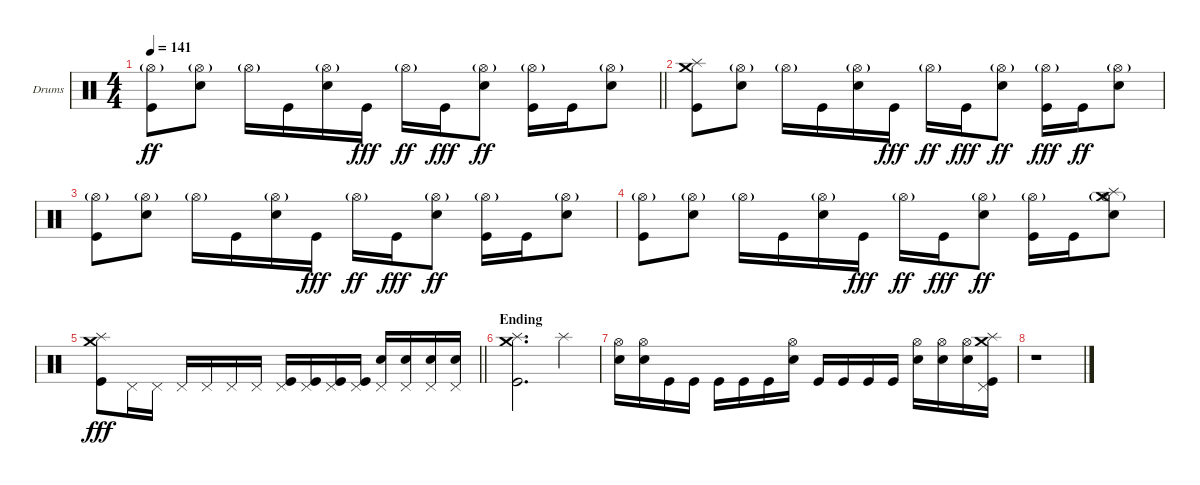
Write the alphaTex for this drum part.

\bracketExtendMode groupsimilarinstruments
\firstSystemTrackNameOrientation horizontal
\otherSystemsTrackNameOrientation horizontal
\track ("Drumkit" "Drums") {solo instrument percussion}
\staff {score}
\articulation defaults
\ts (4 4)
\tempo 141
\clef neutral
\scale
0.333333
\barLineRight lightlight
\ks c
("Hi-Hat (open)"{g} "Kick (hit)").8{dy ff} ("Hi-Hat (open)"{g} "Snare (hit) 2").8 "Hi-Hat (open)"{g}.16 "Kick (hit)".16 ("Hi-Hat (open)"{g} "Snare (hit) 2").16 "Kick (hit)".16{dy fff} "Hi-Hat (open)"{g}.16{dy ff} "Kick (hit)".16{dy fff} ("Hi-Hat (open)"{g} "Snare (hit) 2").8{dy ff} ("Hi-Hat (open)"{g} "Kick (hit)").16 "Kick (hit)".16 ("Hi-Hat (open)"{g} "Snare (hit) 2").8 |
\scale
0.333333 ("Crash medium (hit)" "Splash (hit)" "Kick (hit)").8 ("Hi-Hat (open)"{g} "Snare (hit) 2").8 "Hi-Hat (open)"{g}.16 "Kick (hit)".16 ("Hi-Hat (open)"{g} "Snare (hit) 2").16 "Kick (hit)".16{dy fff} "Hi-Hat (open)"{g}.16{dy ff} "Kick (hit)".16{dy fff} ("Hi-Hat (open)"{g} "Snare (hit) 2").8{dy ff} ("Hi-Hat (open)"{g} "Kick (hit)").16{dy fff} "Kick (hit)".16{dy ff} ("Hi-Hat (open)"{g} "Snare (hit) 2").8 |
\scale
0.333333 ("Hi-Hat (open)"{g} "Kick (hit)").8 ("Hi-Hat (open)"{g} "Snare (hit) 2").8 "Hi-Hat (open)"{g}.16 "Kick (hit)".16 ("Hi-Hat (open)"{g} "Snare (hit) 2").16 "Kick (hit)".16{dy fff} "Hi-Hat (open)"{g}.16{dy ff} "Kick (hit)".16{dy fff} ("Hi-Hat (open)"{g} "Snare (hit) 2").8{dy ff} ("Hi-Hat (open)"{g} "Kick (hit)").16 "Kick (hit)".16 ("Hi-Hat (open)"{g} "Snare (hit) 2").8 |
\scale
0.333333 ("Hi-Hat (open)"{g} "Kick (hit)").8 ("Hi-Hat (open)"{g} "Snare (hit) 2").8 "Hi-Hat (open)"{g}.16 "Kick (hit)".16 ("Hi-Hat (open)"{g} "Snare (hit) 2").16 "Kick (hit)".16{dy fff} "Hi-Hat (open)"{g}.16{dy ff} "Kick (hit)".16{dy fff} ("Hi-Hat (open)"{g} "Snare (hit) 2").8{dy ff} ("Hi-Hat (open)"{g} "Kick (hit)").16 "Kick (hit)".16 ("Hi-Hat (open)"{g} "Snare (hit) 2" "Crash medium (hit)" "Splash (hit)").8 |
\scale
0.333333
\barLineRight lightlight
("Crash medium (hit)" "Splash (hit)" "Kick (hit)").8{dy fff} "Pedal Hi-Hat (hit)".16 "Pedal Hi-Hat (hit)".16 "Pedal Hi-Hat (hit)".16 "Pedal Hi-Hat (hit)".16 "Pedal Hi-Hat (hit)".16 "Pedal Hi-Hat (hit)".16 ("Pedal Hi-Hat (hit)" "Kick (hit)").16 ("Pedal Hi-Hat (hit)" "Kick (hit)").16 ("Pedal Hi-Hat (hit)" "Kick (hit)").16 ("Pedal Hi-Hat (hit)" "Kick (hit)").16 ("Snare (hit) 2" "Pedal Hi-Hat (hit)").16 ("Snare (hit) 2" "Pedal Hi-Hat (hit)").16 ("Snare (hit) 2" "Pedal Hi-Hat (hit)").16 ("Snare (hit) 2" "Pedal Hi-Hat (hit)").16 |
\section ("" "Ending")
\scale
0.333333 ("Crash medium (hit)" "Splash (hit)" "Kick (hit)").2{d} "Splash (hit)".4 |
\scale
0.333333 ("Hi-Hat (open)" "Snare (hit) 2").16 ("Hi-Hat (open)" "Snare (hit) 2").16 "Kick (hit)".16 "Kick (hit)".16 "Kick (hit)".16 "Kick (hit)".16 "Kick (hit)".16 ("Hi-Hat (open)" "Snare (hit) 2").16 "Kick (hit)".16 "Kick (hit)".16 "Kick (hit)".16 "Kick (hit)".16 ("Hi-Hat (open)" "Snare (hit) 2").16 ("Hi-Hat (open)" "Snare (hit) 2").16 ("Hi-Hat (open)" "Snare (hit) 2").16 ("Splash (hit)" "Crash medium (hit)" "Pedal Hi-Hat (hit)" "Kick (hit)").16 |
\scale
0.333333 r.1
